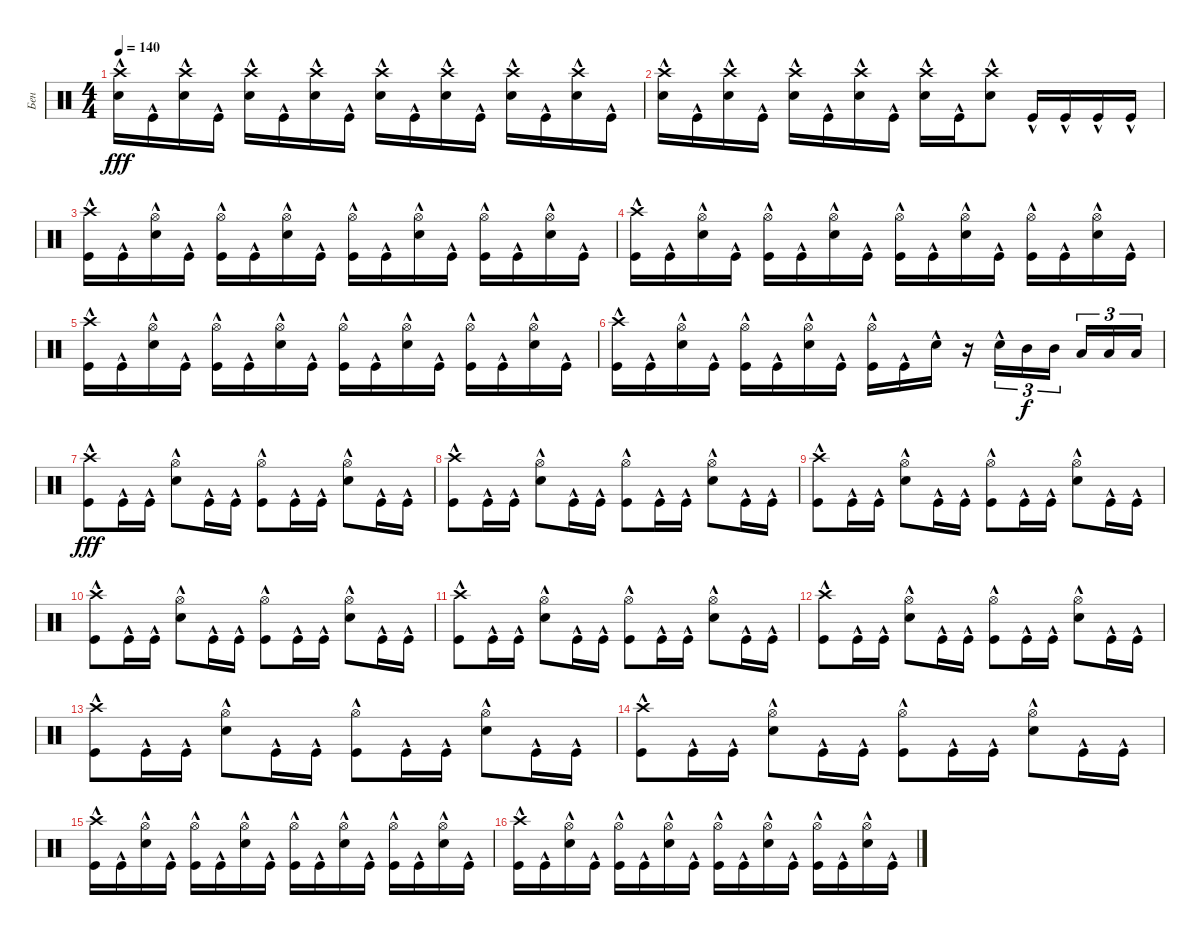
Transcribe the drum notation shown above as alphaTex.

\track ("Бен" "Бен") {instrument percussion}
\staff {score}
\articulation defaults
\ts (4 4)
\tempo 140
\clef neutral
\ks c
("Snare (hit) 2"{hac} "Crash high (hit)"{hac}).16{dy fff} "Kick (hit)"{hac}.16 ("Crash high (hit)" "Snare (hit) 2"{hac}).16 "Kick (hit)"{hac}.16 ("Crash high (hit)" "Snare (hit) 2"{hac}).16 "Kick (hit)"{hac}.16 ("Crash high (hit)" "Snare (hit) 2"{hac}).16 "Kick (hit)"{hac}.16 ("Snare (hit) 2"{hac} "Crash high (hit)").16 "Kick (hit)"{hac}.16 ("Crash high (hit)" "Snare (hit) 2"{hac}).16 "Kick (hit)"{hac}.16 ("Crash high (hit)" "Snare (hit) 2"{hac}).16 "Kick (hit)"{hac}.16 ("Crash high (hit)" "Snare (hit) 2"{hac}).16 "Kick (hit)"{hac}.16 |
("Snare (hit) 2"{hac} "Crash high (hit)"{hac}).16 "Kick (hit)"{hac}.16 ("Crash high (hit)" "Snare (hit) 2"{hac}).16 "Kick (hit)"{hac}.16 ("Crash high (hit)" "Snare (hit) 2"{hac}).16 "Kick (hit)"{hac}.16 ("Crash high (hit)" "Snare (hit) 2"{hac}).16 "Kick (hit)"{hac}.16 ("Snare (hit) 2"{hac} "Crash high (hit)").16 "Kick (hit)"{hac}.16 ("Snare (hit) 2"{hac} "Crash high (hit)").8 "Kick (hit)"{hac}.16 "Kick (hit)"{hac}.16 "Kick (hit)"{hac}.16 "Kick (hit)"{hac}.16 |
("Kick (hit)"{hac} "Crash high (hit)"{hac}).16 "Kick (hit)"{hac}.16 ("Snare (hit) 2"{hac} "Hi-Hat (open)").16 "Kick (hit)"{hac}.16 ("Kick (hit)"{hac} "Hi-Hat (open)").16 "Kick (hit)"{hac}.16 ("Snare (hit) 2"{hac} "Hi-Hat (open)").16 "Kick (hit)"{hac}.16 ("Kick (hit)"{hac} "Hi-Hat (open)").16 "Kick (hit)"{hac}.16 ("Snare (hit) 2"{hac} "Hi-Hat (open)").16 "Kick (hit)"{hac}.16 ("Kick (hit)"{hac} "Hi-Hat (open)").16 "Kick (hit)"{hac}.16 ("Snare (hit) 2"{hac} "Hi-Hat (open)").16 "Kick (hit)"{hac}.16 |
("Kick (hit)"{hac} "Crash high (hit)"{hac}).16 "Kick (hit)"{hac}.16 ("Snare (hit) 2"{hac} "Hi-Hat (open)").16 "Kick (hit)"{hac}.16 ("Kick (hit)"{hac} "Hi-Hat (open)").16 "Kick (hit)"{hac}.16 ("Snare (hit) 2"{hac} "Hi-Hat (open)").16 "Kick (hit)"{hac}.16 ("Kick (hit)"{hac} "Hi-Hat (open)").16 "Kick (hit)"{hac}.16 ("Snare (hit) 2"{hac} "Hi-Hat (open)").16 "Kick (hit)"{hac}.16 ("Kick (hit)"{hac} "Hi-Hat (open)").16 "Kick (hit)"{hac}.16 ("Snare (hit) 2"{hac} "Hi-Hat (open)").16 "Kick (hit)"{hac}.16 |
("Kick (hit)"{hac} "Crash high (hit)"{hac}).16 "Kick (hit)"{hac}.16 ("Snare (hit) 2"{hac} "Hi-Hat (open)").16 "Kick (hit)"{hac}.16 ("Kick (hit)"{hac} "Hi-Hat (open)").16 "Kick (hit)"{hac}.16 ("Snare (hit) 2"{hac} "Hi-Hat (open)").16 "Kick (hit)"{hac}.16 ("Kick (hit)"{hac} "Hi-Hat (open)").16 "Kick (hit)"{hac}.16 ("Snare (hit) 2"{hac} "Hi-Hat (open)").16 "Kick (hit)"{hac}.16 ("Kick (hit)"{hac} "Hi-Hat (open)").16 "Kick (hit)"{hac}.16 ("Snare (hit) 2"{hac} "Hi-Hat (open)").16 "Kick (hit)"{hac}.16 |
("Kick (hit)"{hac} "Crash high (hit)"{hac}).16 "Kick (hit)"{hac}.16 ("Snare (hit) 2"{hac} "Hi-Hat (open)").16 "Kick (hit)"{hac}.16 ("Kick (hit)"{hac} "Hi-Hat (open)").16 "Kick (hit)"{hac}.16 ("Snare (hit) 2"{hac} "Hi-Hat (open)").16 "Kick (hit)"{hac}.16 ("Kick (hit)"{hac} "Hi-Hat (open)").16 "Kick (hit)"{hac}.16 "Snare (hit) 2"{hac}.16 r.16 "Snare (hit) 2"{hac}.16{tu (3 2)} "Mid Tom (hit)".16{tu (3 2) dy f} "Mid Tom (hit)".16{tu (3 2) beam splitsecondary} "Low Tom (hit)".16{tu (3 2)} "Low Tom (hit)".16{tu (3 2)} "Low Tom (hit)".16{tu (3 2)} |
("Kick (hit)"{hac} "Crash high (hit)"{hac}).8{dy fff} "Kick (hit)"{hac}.16 "Kick (hit)"{hac}.16 ("Snare (hit) 2"{hac} "Hi-Hat (open)").8 "Kick (hit)"{hac}.16 "Kick (hit)"{hac}.16 ("Kick (hit)"{hac} "Hi-Hat (open)").8 "Kick (hit)"{hac}.16 "Kick (hit)"{hac}.16 ("Snare (hit) 2"{hac} "Hi-Hat (open)").8 "Kick (hit)"{hac}.16 "Kick (hit)"{hac}.16 |
("Kick (hit)"{hac} "Crash high (hit)"{hac}).8 "Kick (hit)"{hac}.16 "Kick (hit)"{hac}.16 ("Snare (hit) 2"{hac} "Hi-Hat (open)").8 "Kick (hit)"{hac}.16 "Kick (hit)"{hac}.16 ("Kick (hit)"{hac} "Hi-Hat (open)").8 "Kick (hit)"{hac}.16 "Kick (hit)"{hac}.16 ("Snare (hit) 2"{hac} "Hi-Hat (open)").8 "Kick (hit)"{hac}.16 "Kick (hit)"{hac}.16 |
("Kick (hit)"{hac} "Crash high (hit)"{hac}).8 "Kick (hit)"{hac}.16 "Kick (hit)"{hac}.16 ("Snare (hit) 2"{hac} "Hi-Hat (open)").8 "Kick (hit)"{hac}.16 "Kick (hit)"{hac}.16 ("Kick (hit)"{hac} "Hi-Hat (open)").8 "Kick (hit)"{hac}.16 "Kick (hit)"{hac}.16 ("Snare (hit) 2"{hac} "Hi-Hat (open)").8 "Kick (hit)"{hac}.16 "Kick (hit)"{hac}.16 |
("Kick (hit)"{hac} "Crash high (hit)"{hac}).8 "Kick (hit)"{hac}.16 "Kick (hit)"{hac}.16 ("Snare (hit) 2"{hac} "Hi-Hat (open)").8 "Kick (hit)"{hac}.16 "Kick (hit)"{hac}.16 ("Kick (hit)"{hac} "Hi-Hat (open)").8 "Kick (hit)"{hac}.16 "Kick (hit)"{hac}.16 ("Snare (hit) 2"{hac} "Hi-Hat (open)").8 "Kick (hit)"{hac}.16 "Kick (hit)"{hac}.16 |
("Kick (hit)"{hac} "Crash high (hit)"{hac}).8 "Kick (hit)"{hac}.16 "Kick (hit)"{hac}.16 ("Snare (hit) 2"{hac} "Hi-Hat (open)").8 "Kick (hit)"{hac}.16 "Kick (hit)"{hac}.16 ("Kick (hit)"{hac} "Hi-Hat (open)").8 "Kick (hit)"{hac}.16 "Kick (hit)"{hac}.16 ("Snare (hit) 2"{hac} "Hi-Hat (open)").8 "Kick (hit)"{hac}.16 "Kick (hit)"{hac}.16 |
("Kick (hit)"{hac} "Crash high (hit)"{hac}).8 "Kick (hit)"{hac}.16 "Kick (hit)"{hac}.16 ("Snare (hit) 2"{hac} "Hi-Hat (open)").8 "Kick (hit)"{hac}.16 "Kick (hit)"{hac}.16 ("Kick (hit)"{hac} "Hi-Hat (open)").8 "Kick (hit)"{hac}.16 "Kick (hit)"{hac}.16 ("Snare (hit) 2"{hac} "Hi-Hat (open)").8 "Kick (hit)"{hac}.16 "Kick (hit)"{hac}.16 |
("Kick (hit)"{hac} "Crash high (hit)"{hac}).8 "Kick (hit)"{hac}.16 "Kick (hit)"{hac}.16 ("Snare (hit) 2"{hac} "Hi-Hat (open)").8 "Kick (hit)"{hac}.16 "Kick (hit)"{hac}.16 ("Kick (hit)"{hac} "Hi-Hat (open)").8 "Kick (hit)"{hac}.16 "Kick (hit)"{hac}.16 ("Snare (hit) 2"{hac} "Hi-Hat (open)").8 "Kick (hit)"{hac}.16 "Kick (hit)"{hac}.16 |
("Kick (hit)"{hac} "Crash high (hit)"{hac}).8 "Kick (hit)"{hac}.16 "Kick (hit)"{hac}.16 ("Snare (hit) 2"{hac} "Hi-Hat (open)").8 "Kick (hit)"{hac}.16 "Kick (hit)"{hac}.16 ("Kick (hit)"{hac} "Hi-Hat (open)").8 "Kick (hit)"{hac}.16 "Kick (hit)"{hac}.16 ("Snare (hit) 2"{hac} "Hi-Hat (open)").8 "Kick (hit)"{hac}.16 "Kick (hit)"{hac}.16 |
("Kick (hit)"{hac} "Crash high (hit)"{hac}).16 "Kick (hit)"{hac}.16 ("Snare (hit) 2"{hac} "Hi-Hat (open)").16 "Kick (hit)"{hac}.16 ("Kick (hit)"{hac} "Hi-Hat (open)").16 "Kick (hit)"{hac}.16 ("Snare (hit) 2"{hac} "Hi-Hat (open)").16 "Kick (hit)"{hac}.16 ("Kick (hit)"{hac} "Hi-Hat (open)").16 "Kick (hit)"{hac}.16 ("Snare (hit) 2"{hac} "Hi-Hat (open)").16 "Kick (hit)"{hac}.16 ("Kick (hit)"{hac} "Hi-Hat (open)").16 "Kick (hit)"{hac}.16 ("Snare (hit) 2"{hac} "Hi-Hat (open)").16 "Kick (hit)"{hac}.16 |
("Kick (hit)"{hac} "Crash high (hit)"{hac}).16 "Kick (hit)"{hac}.16 ("Snare (hit) 2"{hac} "Hi-Hat (open)").16 "Kick (hit)"{hac}.16 ("Kick (hit)"{hac} "Hi-Hat (open)").16 "Kick (hit)"{hac}.16 ("Snare (hit) 2"{hac} "Hi-Hat (open)").16 "Kick (hit)"{hac}.16 ("Kick (hit)"{hac} "Hi-Hat (open)").16 "Kick (hit)"{hac}.16 ("Snare (hit) 2"{hac} "Hi-Hat (open)").16 "Kick (hit)"{hac}.16 ("Kick (hit)"{hac} "Hi-Hat (open)").16 "Kick (hit)"{hac}.16 ("Snare (hit) 2"{hac} "Hi-Hat (open)").16 "Kick (hit)"{hac}.16
